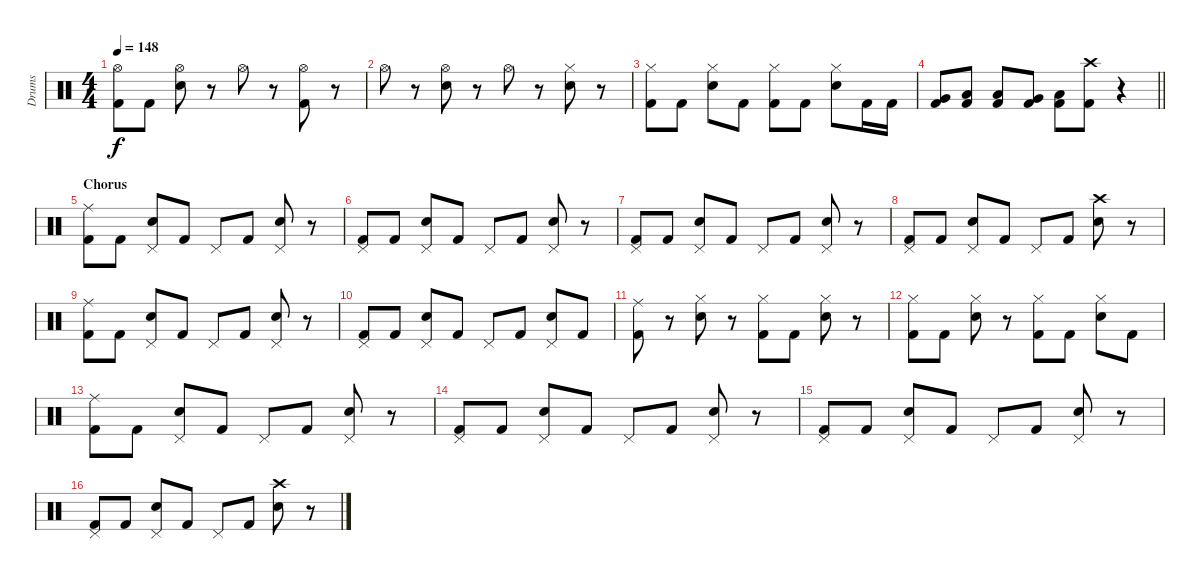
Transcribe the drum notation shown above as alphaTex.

\track ("Drums" "Drums") {instrument percussion}
\staff {score}
\articulation defaults
\ts (4 4)
\tempo 148
\clef neutral
\ks c
("Hi-Hat (open)" "Kick (hit) 2").8{dy f} "Kick (hit) 2".8 ("Hi-Hat (open)" "Electric Snare (hit)").8 r.8 "Hi-Hat (open)".8 r.8 ("Hi-Hat (open)" "Kick (hit) 2").8 r.8 |
"Hi-Hat (open)".8 r.8 ("Hi-Hat (open)" "Electric Snare (hit)").8 r.8 "Hi-Hat (open)".8 r.8 ("Hi-Hat (closed)" "Electric Snare (hit)").8 r.8 |
("Hi-Hat (closed)" "Kick (hit) 2").8 "Kick (hit) 2".8 ("Hi-Hat (closed)" "Electric Snare (hit)").8 "Kick (hit) 2".8 ("Hi-Hat (closed)" "Kick (hit) 2").8 "Kick (hit) 2".8 ("Hi-Hat (closed)" "Electric Snare (hit)").8 "Kick (hit) 2".16 "Kick (hit) 2".16 |
\barLineRight lightlight
("Very Low Tom (hit)" "Kick (hit) 2").8 ("Low Floor Tom (hit)" "Kick (hit) 2").8 ("Low Floor Tom (hit)" "Kick (hit) 2").8 ("Very Low Tom (hit)" "Kick (hit) 2").8 ("Low Floor Tom (hit)" "Kick (hit) 2").8 ("Crash high (hit)" "Kick (hit) 2").8 r.4 |
\section ("" "Chorus")
("Ride (middle)" "Kick (hit) 2").8 "Kick (hit) 2".8 ("Pedal Hi-Hat (hit)" "Electric Snare (hit)").8 "Kick (hit) 2".8 "Pedal Hi-Hat (hit)".8 "Kick (hit) 2".8 ("Pedal Hi-Hat (hit)" "Electric Snare (hit)").8 r.8 |
("Pedal Hi-Hat (hit)" "Kick (hit) 2").8 "Kick (hit) 2".8 ("Pedal Hi-Hat (hit)" "Electric Snare (hit)").8 "Kick (hit) 2".8 "Pedal Hi-Hat (hit)".8 "Kick (hit) 2".8 ("Pedal Hi-Hat (hit)" "Electric Snare (hit)").8 r.8 |
("Pedal Hi-Hat (hit)" "Kick (hit) 2").8 "Kick (hit) 2".8 ("Pedal Hi-Hat (hit)" "Electric Snare (hit)").8 "Kick (hit) 2".8 "Pedal Hi-Hat (hit)".8 "Kick (hit) 2".8 ("Pedal Hi-Hat (hit)" "Electric Snare (hit)").8 r.8 |
("Pedal Hi-Hat (hit)" "Kick (hit) 2").8 "Kick (hit) 2".8 ("Pedal Hi-Hat (hit)" "Electric Snare (hit)").8 "Kick (hit) 2".8 "Pedal Hi-Hat (hit)".8 "Kick (hit) 2".8 ("Crash high (hit)" "Electric Snare (hit)").8 r.8 |
("Ride (middle)" "Kick (hit) 2").8 "Kick (hit) 2".8 ("Pedal Hi-Hat (hit)" "Electric Snare (hit)").8 "Kick (hit) 2".8 "Pedal Hi-Hat (hit)".8 "Kick (hit) 2".8 ("Pedal Hi-Hat (hit)" "Electric Snare (hit)").8 r.8 |
("Pedal Hi-Hat (hit)" "Kick (hit) 2").8 "Kick (hit) 2".8 ("Pedal Hi-Hat (hit)" "Electric Snare (hit)").8 "Kick (hit) 2".8 "Pedal Hi-Hat (hit)".8 "Kick (hit) 2".8 ("Pedal Hi-Hat (hit)" "Electric Snare (hit)").8 "Kick (hit) 2".8 |
("Ride (middle)" "Kick (hit) 2").8 r.8 ("Hi-Hat (closed)" "Electric Snare (hit)").8 r.8 ("Hi-Hat (closed)" "Kick (hit) 2").8 "Kick (hit) 2".8 ("Hi-Hat (closed)" "Electric Snare (hit)").8 r.8 |
("Hi-Hat (closed)" "Kick (hit) 2").8 "Kick (hit) 2".8 ("Hi-Hat (closed)" "Electric Snare (hit)").8 r.8 ("Hi-Hat (closed)" "Kick (hit) 2").8 "Kick (hit) 2".8 ("Hi-Hat (closed)" "Electric Snare (hit)").8 "Kick (hit) 2".8 |
("Ride (middle)" "Kick (hit) 2").8 "Kick (hit) 2".8 ("Pedal Hi-Hat (hit)" "Electric Snare (hit)").8 "Kick (hit) 2".8 "Pedal Hi-Hat (hit)".8 "Kick (hit) 2".8 ("Pedal Hi-Hat (hit)" "Electric Snare (hit)").8 r.8 |
("Pedal Hi-Hat (hit)" "Kick (hit) 2").8 "Kick (hit) 2".8 ("Pedal Hi-Hat (hit)" "Electric Snare (hit)").8 "Kick (hit) 2".8 "Pedal Hi-Hat (hit)".8 "Kick (hit) 2".8 ("Pedal Hi-Hat (hit)" "Electric Snare (hit)").8 r.8 |
("Pedal Hi-Hat (hit)" "Kick (hit) 2").8 "Kick (hit) 2".8 ("Pedal Hi-Hat (hit)" "Electric Snare (hit)").8 "Kick (hit) 2".8 "Pedal Hi-Hat (hit)".8 "Kick (hit) 2".8 ("Pedal Hi-Hat (hit)" "Electric Snare (hit)").8 r.8 |
("Pedal Hi-Hat (hit)" "Kick (hit) 2").8 "Kick (hit) 2".8 ("Pedal Hi-Hat (hit)" "Electric Snare (hit)").8 "Kick (hit) 2".8 "Pedal Hi-Hat (hit)".8 "Kick (hit) 2".8 ("Crash high (hit)" "Electric Snare (hit)").8 r.8
